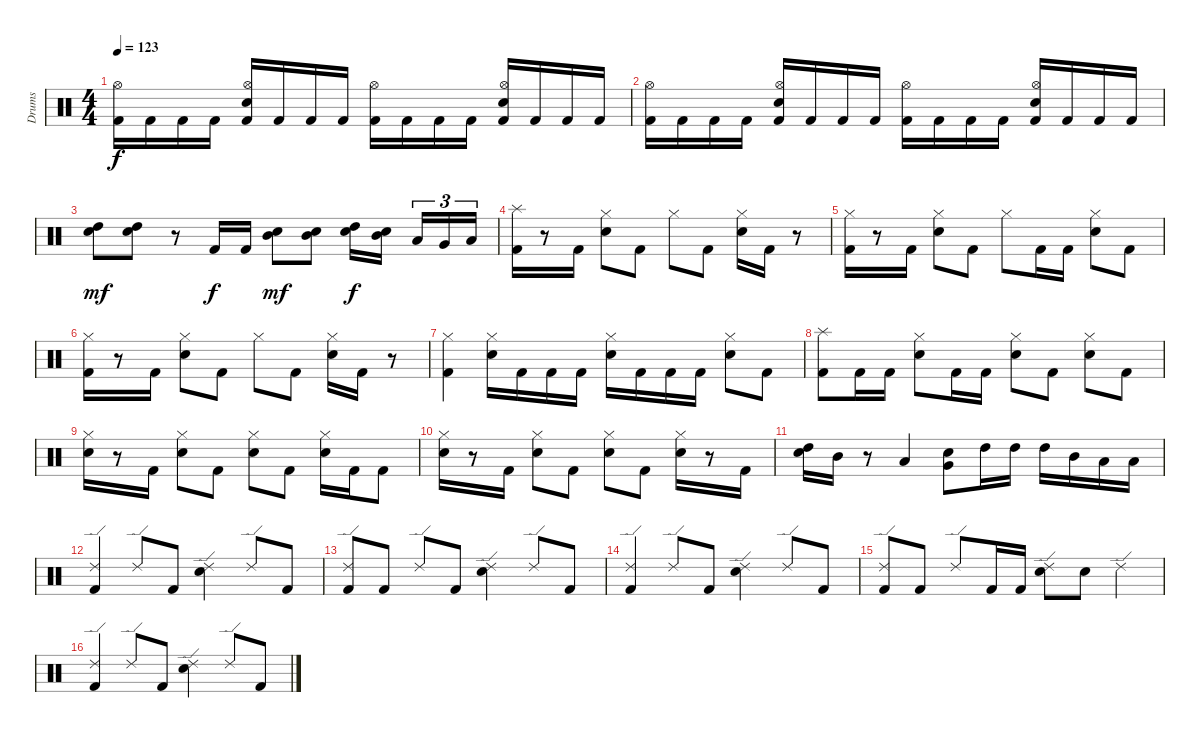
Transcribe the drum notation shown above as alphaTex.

\track ("Drums" "Drums") {instrument percussion}
\staff {score}
\articulation defaults
\ts (4 4)
\tempo 123
\clef neutral
\ks c
("Kick (hit) 2" "Hi-Hat (open)").16{dy f} "Kick (hit) 2".16 "Kick (hit) 2".16 "Kick (hit) 2".16 ("Kick (hit) 2" "Snare (hit) 2" "Hi-Hat (open)").16 "Kick (hit) 2".16 "Kick (hit) 2".16 "Kick (hit) 2".16 ("Kick (hit) 2" "Hi-Hat (open)").16 "Kick (hit) 2".16 "Kick (hit) 2".16 "Kick (hit) 2".16 ("Kick (hit) 2" "Snare (hit) 2" "Hi-Hat (open)").16 "Kick (hit) 2".16 "Kick (hit) 2".16 "Kick (hit) 2".16 |
("Kick (hit) 2" "Hi-Hat (open)").16 "Kick (hit) 2".16 "Kick (hit) 2".16 "Kick (hit) 2".16 ("Kick (hit) 2" "Snare (hit) 2" "Hi-Hat (open)").16 "Kick (hit) 2".16 "Kick (hit) 2".16 "Kick (hit) 2".16 ("Kick (hit) 2" "Hi-Hat (open)").16 "Kick (hit) 2".16 "Kick (hit) 2".16 "Kick (hit) 2".16 ("Kick (hit) 2" "Snare (hit) 2" "Hi-Hat (open)").16 "Kick (hit) 2".16 "Kick (hit) 2".16 "Kick (hit) 2".16 |
("Snare (hit) 2" "High Tom (hit)").8{dy mf} ("Snare (hit) 2" "High Tom (hit)").8 r.8 "Kick (hit) 2".16{dy f} "Kick (hit) 2".16 ("Snare (hit) 2" "Mid Tom (hit)").8{dy mf} ("Snare (hit) 2" "Mid Tom (hit)").8 ("Snare (hit) 2" "High Tom (hit)").16{dy f} ("Snare (hit) 2" "Mid Tom (hit)").16 "Low Tom (hit)".16{tu (3 2)} "Very Low Tom (hit)".16{tu (3 2)} "Low Floor Tom (hit)".16{tu (3 2)} |
("Kick (hit) 2" "Splash (hit)").16 r.8 "Kick (hit) 2".16 ("Snare (hit) 2" "Hi-Hat (closed)").8 "Kick (hit) 2".8 "Hi-Hat (closed)".8 "Kick (hit) 2".8 ("Snare (hit) 2" "Hi-Hat (closed)").16 "Kick (hit) 2".16 r.8 |
("Kick (hit) 2" "Hi-Hat (closed)").16 r.8 "Kick (hit) 2".16 ("Snare (hit) 2" "Hi-Hat (closed)").8 "Kick (hit) 2".8 "Hi-Hat (closed)".8 "Kick (hit) 2".16 "Kick (hit) 2".16 ("Snare (hit) 2" "Hi-Hat (closed)").8 "Kick (hit) 2".8 |
("Kick (hit) 2" "Hi-Hat (closed)").16 r.8 "Kick (hit) 2".16 ("Snare (hit) 2" "Hi-Hat (closed)").8 "Kick (hit) 2".8 "Hi-Hat (closed)".8 "Kick (hit) 2".8 ("Snare (hit) 2" "Hi-Hat (closed)").16 "Kick (hit) 2".16 r.8 |
("Kick (hit) 2" "Hi-Hat (closed)").4 ("Snare (hit) 2" "Hi-Hat (closed)").16 "Kick (hit) 2".16 "Kick (hit) 2".16 "Kick (hit) 2".16 ("Snare (hit) 2" "Hi-Hat (closed)").16 "Kick (hit) 2".16 "Kick (hit) 2".16 "Kick (hit) 2".16 ("Snare (hit) 2" "Hi-Hat (closed)").8 "Kick (hit) 2".8 |
("Kick (hit) 2" "Splash (hit)").8 "Kick (hit) 2".16 "Kick (hit) 2".16 ("Snare (hit) 2" "Hi-Hat (closed)").8 "Kick (hit) 2".16 "Kick (hit) 2".16 ("Snare (hit) 2" "Hi-Hat (closed)").8 "Kick (hit) 2".8 ("Snare (hit) 2" "Hi-Hat (closed)").8 "Kick (hit) 2".8 |
("Snare (hit) 2" "Hi-Hat (closed)").16 r.8 "Kick (hit) 2".16 ("Snare (hit) 2" "Hi-Hat (closed)").8 "Kick (hit) 2".8 ("Snare (hit) 2" "Hi-Hat (closed)").8 "Kick (hit) 2".8 ("Snare (hit) 2" "Hi-Hat (closed)").16 "Kick (hit) 2".16 "Kick (hit) 2".8 |
("Snare (hit) 2" "Hi-Hat (closed)").16 r.8 "Kick (hit) 2".16 ("Snare (hit) 2" "Hi-Hat (closed)").8 "Kick (hit) 2".8 ("Snare (hit) 2" "Hi-Hat (closed)").8 "Kick (hit) 2".8 ("Snare (hit) 2" "Hi-Hat (closed)").16 r.8 "Kick (hit) 2".16 |
("Snare (hit) 2" "High Tom (hit)").16 "Mid Tom (hit)".16 r.8 "Low Tom (hit)".4 ("Snare (hit) 2" "Very Low Tom (hit)").8 "High Tom (hit)".16 "High Tom (hit)".16 "High Tom (hit)".16 "Mid Tom (hit)".16 "Low Tom (hit)".16 "Low Floor Tom (hit)".16 |
("Kick (hit) 2" "Ride (edge) 2").4 "Ride (edge) 2".8 "Kick (hit) 2".8 ("Snare (hit) 2" "Ride (edge) 2").4 "Ride (edge) 2".8 "Kick (hit) 2".8 |
("Kick (hit) 2" "Ride (edge) 2").8 "Kick (hit) 2".8 "Ride (edge) 2".8 "Kick (hit) 2".8 ("Snare (hit) 2" "Ride (edge) 2").4 "Ride (edge) 2".8 "Kick (hit) 2".8 |
("Kick (hit) 2" "Ride (edge) 2").4 "Ride (edge) 2".8 "Kick (hit) 2".8 ("Snare (hit) 2" "Ride (edge) 2").4 "Ride (edge) 2".8 "Kick (hit) 2".8 |
("Kick (hit) 2" "Ride (edge) 2").8 "Kick (hit) 2".8 "Ride (edge) 2".8 "Kick (hit) 2".16 "Kick (hit) 2".16 ("Snare (hit) 2" "Ride (edge) 2").8 "Snare (hit) 2".8 "Ride (edge) 2".4 |
("Kick (hit) 2" "Ride (edge) 2").4 "Ride (edge) 2".8 "Kick (hit) 2".8 ("Snare (hit) 2" "Ride (edge) 2").4 "Ride (edge) 2".8 "Kick (hit) 2".8
